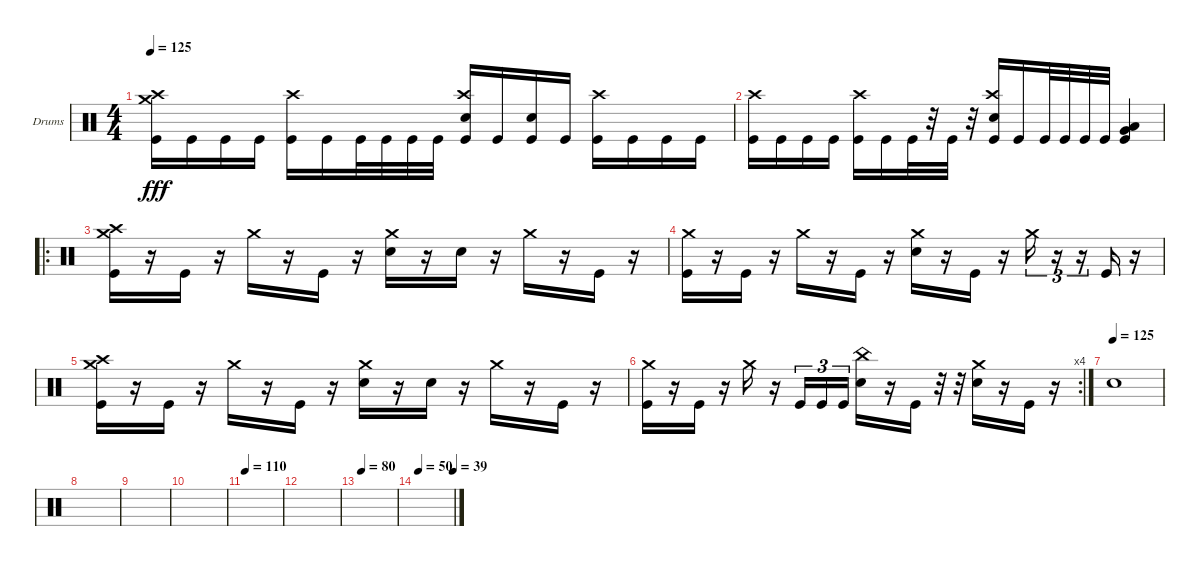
\bracketExtendMode groupsimilarinstruments
\firstSystemTrackNameOrientation horizontal
\otherSystemsTrackNameOrientation horizontal
\track ("Drumkit" "Drums") {instrument percussion}
\staff {score}
\articulation defaults
\ts (4 4)
\tempo 125
\clef neutral
\ks c
("Kick (hit)" "Crash medium (hit)" "Crash high (hit)").16{dy fff} "Kick (hit)".16 "Kick (hit)".16 "Kick (hit)".16 ("Kick (hit)" "Crash high (hit)").16 "Kick (hit)".16 "Kick (hit)".32 "Kick (hit)".32 "Kick (hit)".32 "Kick (hit)".32 ("Snare (hit) 2" "Kick (hit)" "Crash high (hit)").16 "Kick (hit)".16 ("Kick (hit)" "Snare (hit) 2").16 "Kick (hit)".16 ("Kick (hit)" "Crash high (hit)").16 "Kick (hit)".16 "Kick (hit)".16 "Kick (hit)".16 |
("Kick (hit)" "Crash high (hit)").16 "Kick (hit)".16 "Kick (hit)".16 "Kick (hit)".16 ("Kick (hit)" "Crash high (hit)").16 "Kick (hit)".16 "Kick (hit)".32 r.32 "Kick (hit)".32 r.32 ("Snare (hit) 2" "Kick (hit)" "Crash high (hit)").16 "Kick (hit)".16 "Kick (hit)".32 "Kick (hit)".32 "Kick (hit)".32 "Kick (hit)".32 ("Very Low Tom (hit)" "Low Tom (hit)" "Kick (hit)").4 |
\ro
("Crash medium (hit)" "Crash high (hit)" "Kick (hit)").16 r.16 "Kick (hit)".16 r.16 "Crash medium (hit)".16 r.16 "Kick (hit)".16 r.16 ("Snare (hit) 2" "Crash medium (hit)").16 r.16 "Snare (hit) 2".16 r.16 "Crash medium (hit)".16 r.16 "Kick (hit)".16 r.16 |
("Kick (hit)" "Crash medium (hit)").16 r.16 "Kick (hit)".16 r.16 "Crash medium (hit)".16 r.16 "Kick (hit)".16 r.16 ("Snare (hit) 2" "Crash medium (hit)").16 r.16 "Kick (hit)".16 r.16 "Crash medium (hit)".16{tu (3 2)} r.16{tu (3 2)} r.16{tu (3 2)} "Kick (hit)".16 r.16 |
("Crash medium (hit)" "Crash high (hit)" "Kick (hit)").16 r.16 "Kick (hit)".16 r.16 "Crash medium (hit)".16 r.16 "Kick (hit)".16 r.16 ("Snare (hit) 2" "Crash medium (hit)").16 r.16 "Snare (hit) 2".16 r.16 "Crash medium (hit)".16 r.16 "Kick (hit)".16 r.16 |
\rc 4
("Kick (hit)" "Crash medium (hit)").16 r.16 "Kick (hit)".16 r.16 "Crash medium (hit)".16 r.16 "Kick (hit)".16{tu (3 2)} "Kick (hit)".16{tu (3 2)} "Kick (hit)".16{tu (3 2)} ("Snare (hit) 2" "China (hit)").16 r.16 "Kick (hit)".16 r.32 r.32 ("Snare (hit) 2" "Crash medium (hit)").16 r.16 "Kick (hit)".16 r.16 |
\tempo (125)
"Snare (hit) 2".1 |
|
|
|
\tempo 110
|
|
\tempo (80 0.0625)
|
\tempo (50 0.0625)
\tempo (39 1)
